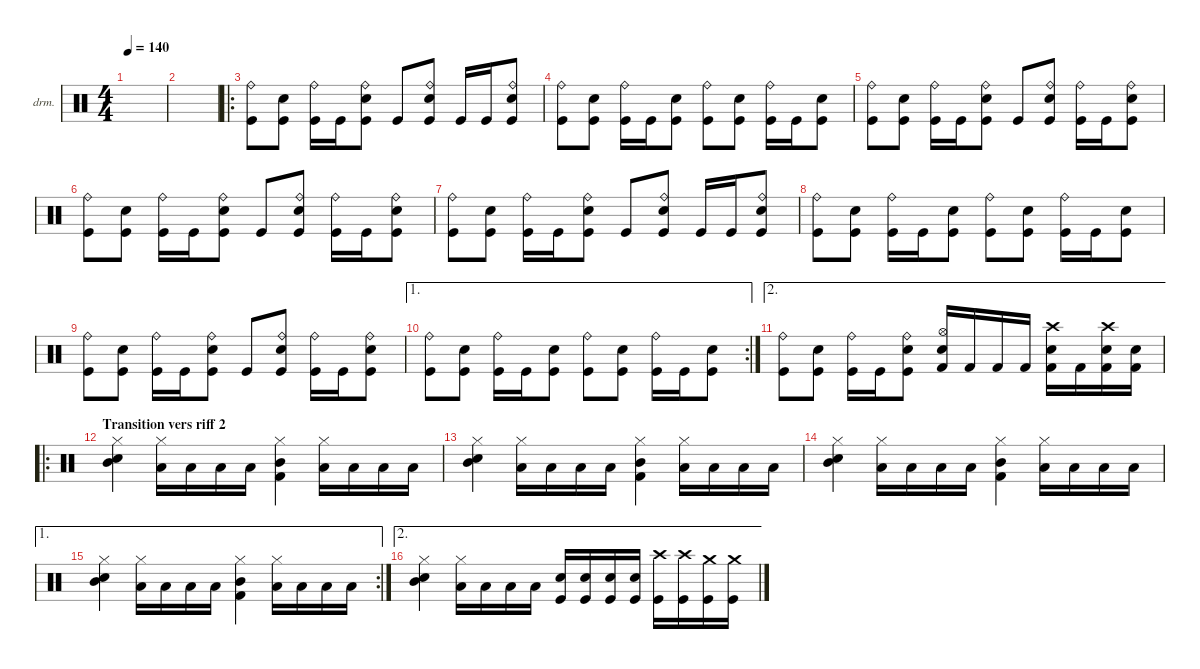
\defaultSystemsLayout 4
\hideDynamics
\bracketExtendMode nobrackets
\firstSystemTrackNameOrientation horizontal
\otherSystemsTrackNameOrientation horizontal
\track ("Drumkit" "drm.") {instrument percussion}
\staff {score}
\articulation defaults
\ts (4 4)
\tempo 140
\clef neutral
\ks c
|
|
\ro
("Kick (hit)" "Ride (bell)").8 ("Snare (hit) 2" "Kick (hit)").8 ("Kick (hit)" "Ride (bell)").16 "Kick (hit)".16 ("Snare (hit) 2" "Kick (hit)" "Ride (bell)").8 "Kick (hit)".8 ("Snare (hit) 2" "Kick (hit)" "Ride (bell)").8 "Kick (hit)".16 "Kick (hit)".16 ("Snare (hit) 2" "Kick (hit)" "Ride (bell)").8 |
("Kick (hit)" "Ride (bell)").8 ("Snare (hit) 2" "Kick (hit)").8 ("Kick (hit)" "Ride (bell)").16 "Kick (hit)".16 ("Snare (hit) 2" "Kick (hit)").8 ("Kick (hit)" "Ride (bell)").8 ("Snare (hit) 2" "Kick (hit)").8 ("Kick (hit)" "Ride (bell)").16 "Kick (hit)".16 ("Snare (hit) 2" "Kick (hit)").8 |
("Kick (hit)" "Ride (bell)").8 ("Snare (hit) 2" "Kick (hit)").8 ("Kick (hit)" "Ride (bell)").16 "Kick (hit)".16 ("Snare (hit) 2" "Kick (hit)" "Ride (bell)").8 "Kick (hit)".8 ("Snare (hit) 2" "Kick (hit)" "Ride (bell)").8 ("Kick (hit)" "Ride (bell)").16 "Kick (hit)".16 ("Snare (hit) 2" "Kick (hit)" "Ride (bell)").8 |
("Kick (hit)" "Ride (bell)").8 ("Snare (hit) 2" "Kick (hit)").8 ("Kick (hit)" "Ride (bell)").16 "Kick (hit)".16 ("Snare (hit) 2" "Kick (hit)" "Ride (bell)").8 "Kick (hit)".8 ("Snare (hit) 2" "Kick (hit)" "Ride (bell)").8 ("Kick (hit)" "Ride (bell)").16 "Kick (hit)".16 ("Snare (hit) 2" "Kick (hit)" "Ride (bell)").8 |
("Kick (hit)" "Ride (bell)").8 ("Snare (hit) 2" "Kick (hit)").8 ("Kick (hit)" "Ride (bell)").16 "Kick (hit)".16 ("Snare (hit) 2" "Kick (hit)" "Ride (bell)").8 "Kick (hit)".8 ("Snare (hit) 2" "Kick (hit)" "Ride (bell)").8 "Kick (hit)".16 "Kick (hit)".16 ("Snare (hit) 2" "Kick (hit)" "Ride (bell)").8 |
("Kick (hit)" "Ride (bell)").8 ("Snare (hit) 2" "Kick (hit)").8 ("Kick (hit)" "Ride (bell)").16 "Kick (hit)".16 ("Snare (hit) 2" "Kick (hit)").8 ("Kick (hit)" "Ride (bell)").8 ("Snare (hit) 2" "Kick (hit)").8 ("Kick (hit)" "Ride (bell)").16 "Kick (hit)".16 ("Snare (hit) 2" "Kick (hit)").8 |
("Kick (hit)" "Ride (bell)").8 ("Snare (hit) 2" "Kick (hit)").8 ("Kick (hit)" "Ride (bell)").16 "Kick (hit)".16 ("Snare (hit) 2" "Kick (hit)" "Ride (bell)").8 "Kick (hit)".8 ("Snare (hit) 2" "Kick (hit)" "Ride (bell)").8 ("Kick (hit)" "Ride (bell)").16 "Kick (hit)".16 ("Snare (hit) 2" "Kick (hit)" "Ride (bell)").8 |
\ae 1
\rc 2
("Kick (hit)" "Ride (bell)").8 ("Snare (hit) 2" "Kick (hit)").8 ("Kick (hit)" "Ride (bell)").16 "Kick (hit)".16 ("Snare (hit) 2" "Kick (hit)").8 ("Kick (hit)" "Ride (bell)").8 ("Snare (hit) 2" "Kick (hit)").8 ("Kick (hit)" "Ride (bell)").16 "Kick (hit)".16 ("Snare (hit) 2" "Kick (hit)").8 |
\ae 2
("Kick (hit)" "Ride (bell)").8 ("Snare (hit) 2" "Kick (hit)").8 ("Kick (hit)" "Ride (bell)").16 "Kick (hit)".16 ("Snare (hit) 2" "Kick (hit)" "Ride (bell)").8 ("Hi-Hat (open)" "Snare (hit) 2" "Kick (hit) 2").16 "Kick (hit) 2".16 "Kick (hit) 2".16 "Kick (hit) 2".16 ("Crash high (hit)" "Snare (hit) 2" "Kick (hit) 2").16 "Kick (hit) 2".16 ("Crash high (hit)" "Snare (hit) 2" "Kick (hit) 2").16 ("Snare (hit) 2" "Kick (hit) 2").16 |
\ro
\section ("" "Transition vers riff 2")
("Snare (hit) 2" "Mid Tom (hit)" "Hi-Hat (closed)").4{dy fff} ("Low Tom (hit)" "Hi-Hat (closed)").16 "Low Tom (hit)".16 "Low Tom (hit)".16 "Low Tom (hit)".16 ("Mid Tom (hit)" "Kick (hit) 2" "Hi-Hat (closed)").4 ("Low Tom (hit)" "Hi-Hat (closed)").16 "Low Tom (hit)".16 "Low Tom (hit)".16 "Low Tom (hit)".16 |
("Snare (hit) 2" "Mid Tom (hit)" "Hi-Hat (closed)").4 ("Low Tom (hit)" "Hi-Hat (closed)").16 "Low Tom (hit)".16 "Low Tom (hit)".16 "Low Tom (hit)".16 ("Mid Tom (hit)" "Kick (hit) 2" "Hi-Hat (closed)").4 ("Low Tom (hit)" "Hi-Hat (closed)").16 "Low Tom (hit)".16 "Low Tom (hit)".16 "Low Tom (hit)".16 |
("Snare (hit) 2" "Mid Tom (hit)" "Hi-Hat (closed)").4 ("Low Tom (hit)" "Hi-Hat (closed)").16 "Low Tom (hit)".16 "Low Tom (hit)".16 "Low Tom (hit)".16 ("Mid Tom (hit)" "Kick (hit) 2" "Hi-Hat (closed)").4 ("Low Tom (hit)" "Hi-Hat (closed)").16 "Low Tom (hit)".16 "Low Tom (hit)".16 "Low Tom (hit)".16 |
\ae 1
\rc 2
("Snare (hit) 2" "Mid Tom (hit)" "Hi-Hat (closed)").4 ("Low Tom (hit)" "Hi-Hat (closed)").16 "Low Tom (hit)".16 "Low Tom (hit)".16 "Low Tom (hit)".16 ("Mid Tom (hit)" "Kick (hit) 2" "Hi-Hat (closed)").4 ("Low Tom (hit)" "Hi-Hat (closed)").16 "Low Tom (hit)".16 "Low Tom (hit)".16 "Low Tom (hit)".16 |
\ae 2
("Snare (hit) 2" "Mid Tom (hit)" "Hi-Hat (closed)").4 ("Low Tom (hit)" "Hi-Hat (closed)").16 "Low Tom (hit)".16 "Low Tom (hit)".16 "Low Tom (hit)".16 ("Kick (hit)" "Snare (hit) 2").16{dy f} ("Kick (hit)" "Snare (hit) 2").16 ("Kick (hit)" "Snare (hit) 2").16 ("Kick (hit)" "Snare (hit) 2").16 ("Kick (hit)" "Crash high (hit)").16 ("Kick (hit)" "Crash high (hit)").16 ("Kick (hit)" "Crash medium (hit)").16 ("Kick (hit)" "Crash medium (hit)").16
